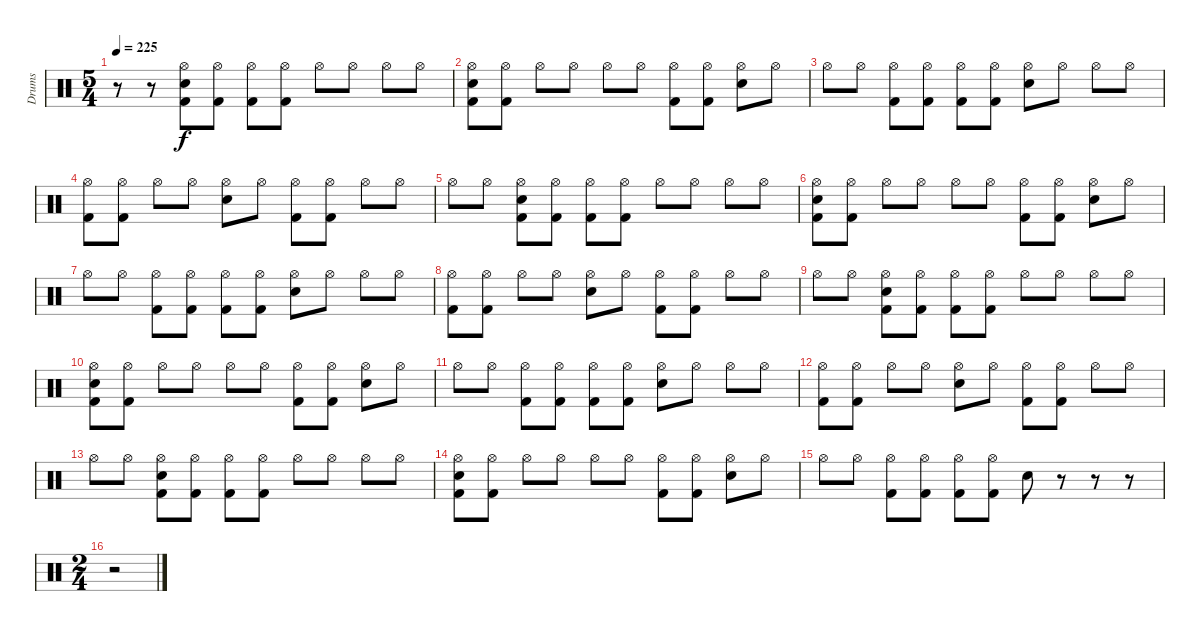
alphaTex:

\track ("Drums" "Drums") {instrument percussion}
\staff {score}
\articulation defaults
\ts (5 4)
\tempo 225
\clef neutral
\ks c
r.8{dy f} r.8 ("Hi-Hat (open)" "Electric Snare (hit)" "Kick (hit) 2").8 ("Hi-Hat (open)" "Kick (hit) 2").8 ("Hi-Hat (open)" "Kick (hit) 2").8 ("Hi-Hat (open)" "Kick (hit) 2").8 "Hi-Hat (open)".8 "Hi-Hat (open)".8 "Hi-Hat (open)".8 "Hi-Hat (open)".8 |
("Hi-Hat (open)" "Electric Snare (hit)" "Kick (hit) 2").8 ("Hi-Hat (open)" "Kick (hit) 2").8 "Hi-Hat (open)".8 "Hi-Hat (open)".8 "Hi-Hat (open)".8 "Hi-Hat (open)".8 ("Hi-Hat (open)" "Kick (hit) 2").8 ("Hi-Hat (open)" "Kick (hit) 2").8 ("Hi-Hat (open)" "Electric Snare (hit)").8 "Hi-Hat (open)".8 |
"Hi-Hat (open)".8 "Hi-Hat (open)".8 ("Hi-Hat (open)" "Kick (hit) 2").8 ("Hi-Hat (open)" "Kick (hit) 2").8 ("Hi-Hat (open)" "Kick (hit) 2").8 ("Hi-Hat (open)" "Kick (hit) 2").8 ("Hi-Hat (open)" "Electric Snare (hit)").8 "Hi-Hat (open)".8 "Hi-Hat (open)".8 "Hi-Hat (open)".8 |
("Hi-Hat (open)" "Kick (hit) 2").8 ("Hi-Hat (open)" "Kick (hit) 2").8 "Hi-Hat (open)".8 "Hi-Hat (open)".8 ("Hi-Hat (open)" "Electric Snare (hit)").8 "Hi-Hat (open)".8 ("Hi-Hat (open)" "Kick (hit) 2").8 ("Hi-Hat (open)" "Kick (hit) 2").8 "Hi-Hat (open)".8 "Hi-Hat (open)".8 |
"Hi-Hat (open)".8 "Hi-Hat (open)".8 ("Hi-Hat (open)" "Electric Snare (hit)" "Kick (hit) 2").8 ("Hi-Hat (open)" "Kick (hit) 2").8 ("Hi-Hat (open)" "Kick (hit) 2").8 ("Hi-Hat (open)" "Kick (hit) 2").8 "Hi-Hat (open)".8 "Hi-Hat (open)".8 "Hi-Hat (open)".8 "Hi-Hat (open)".8 |
("Hi-Hat (open)" "Electric Snare (hit)" "Kick (hit) 2").8 ("Hi-Hat (open)" "Kick (hit) 2").8 "Hi-Hat (open)".8 "Hi-Hat (open)".8 "Hi-Hat (open)".8 "Hi-Hat (open)".8 ("Hi-Hat (open)" "Kick (hit) 2").8 ("Hi-Hat (open)" "Kick (hit) 2").8 ("Hi-Hat (open)" "Electric Snare (hit)").8 "Hi-Hat (open)".8 |
"Hi-Hat (open)".8 "Hi-Hat (open)".8 ("Hi-Hat (open)" "Kick (hit) 2").8 ("Hi-Hat (open)" "Kick (hit) 2").8 ("Hi-Hat (open)" "Kick (hit) 2").8 ("Hi-Hat (open)" "Kick (hit) 2").8 ("Hi-Hat (open)" "Electric Snare (hit)").8 "Hi-Hat (open)".8 "Hi-Hat (open)".8 "Hi-Hat (open)".8 |
("Hi-Hat (open)" "Kick (hit) 2").8 ("Hi-Hat (open)" "Kick (hit) 2").8 "Hi-Hat (open)".8 "Hi-Hat (open)".8 ("Hi-Hat (open)" "Electric Snare (hit)").8 "Hi-Hat (open)".8 ("Hi-Hat (open)" "Kick (hit) 2").8 ("Hi-Hat (open)" "Kick (hit) 2").8 "Hi-Hat (open)".8 "Hi-Hat (open)".8 |
"Hi-Hat (open)".8 "Hi-Hat (open)".8 ("Hi-Hat (open)" "Electric Snare (hit)" "Kick (hit) 2").8 ("Hi-Hat (open)" "Kick (hit) 2").8 ("Hi-Hat (open)" "Kick (hit) 2").8 ("Hi-Hat (open)" "Kick (hit) 2").8 "Hi-Hat (open)".8 "Hi-Hat (open)".8 "Hi-Hat (open)".8 "Hi-Hat (open)".8 |
("Hi-Hat (open)" "Electric Snare (hit)" "Kick (hit) 2").8 ("Hi-Hat (open)" "Kick (hit) 2").8 "Hi-Hat (open)".8 "Hi-Hat (open)".8 "Hi-Hat (open)".8 "Hi-Hat (open)".8 ("Hi-Hat (open)" "Kick (hit) 2").8 ("Hi-Hat (open)" "Kick (hit) 2").8 ("Hi-Hat (open)" "Electric Snare (hit)").8 "Hi-Hat (open)".8 |
"Hi-Hat (open)".8 "Hi-Hat (open)".8 ("Hi-Hat (open)" "Kick (hit) 2").8 ("Hi-Hat (open)" "Kick (hit) 2").8 ("Hi-Hat (open)" "Kick (hit) 2").8 ("Hi-Hat (open)" "Kick (hit) 2").8 ("Hi-Hat (open)" "Electric Snare (hit)").8 "Hi-Hat (open)".8 "Hi-Hat (open)".8 "Hi-Hat (open)".8 |
("Hi-Hat (open)" "Kick (hit) 2").8 ("Hi-Hat (open)" "Kick (hit) 2").8 "Hi-Hat (open)".8 "Hi-Hat (open)".8 ("Hi-Hat (open)" "Electric Snare (hit)").8 "Hi-Hat (open)".8 ("Hi-Hat (open)" "Kick (hit) 2").8 ("Hi-Hat (open)" "Kick (hit) 2").8 "Hi-Hat (open)".8 "Hi-Hat (open)".8 |
"Hi-Hat (open)".8 "Hi-Hat (open)".8 ("Hi-Hat (open)" "Electric Snare (hit)" "Kick (hit) 2").8 ("Hi-Hat (open)" "Kick (hit) 2").8 ("Hi-Hat (open)" "Kick (hit) 2").8 ("Hi-Hat (open)" "Kick (hit) 2").8 "Hi-Hat (open)".8 "Hi-Hat (open)".8 "Hi-Hat (open)".8 "Hi-Hat (open)".8 |
("Hi-Hat (open)" "Electric Snare (hit)" "Kick (hit) 2").8 ("Hi-Hat (open)" "Kick (hit) 2").8 "Hi-Hat (open)".8 "Hi-Hat (open)".8 "Hi-Hat (open)".8 "Hi-Hat (open)".8 ("Hi-Hat (open)" "Kick (hit) 2").8 ("Hi-Hat (open)" "Kick (hit) 2").8 ("Hi-Hat (open)" "Electric Snare (hit)").8 "Hi-Hat (open)".8 |
"Hi-Hat (open)".8 "Hi-Hat (open)".8 ("Hi-Hat (open)" "Kick (hit) 2").8 ("Hi-Hat (open)" "Kick (hit) 2").8 ("Hi-Hat (open)" "Kick (hit) 2").8 ("Hi-Hat (open)" "Kick (hit) 2").8 "Electric Snare (hit)".8 r.8 r.8 r.8 |
\ts (2 4)
r.2
